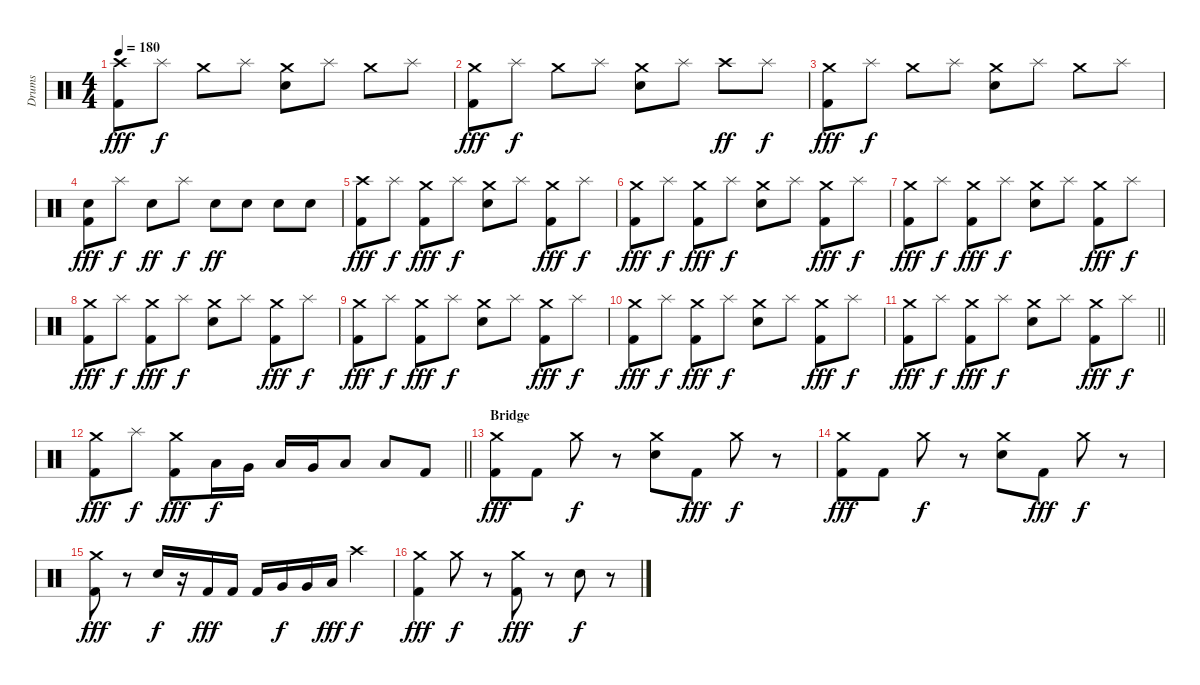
\track ("Drums" "Drums") {instrument percussion}
\staff {score}
\articulation defaults
\ts (4 4)
\tempo 180
\clef neutral
\ks c
("Crash high (hit)" "Kick (hit) 2").8{dy fff} "Splash (hit)".8{dy f} "Crash medium (hit)".8 "Splash (hit)".8 ("Crash medium (hit)" "Electric Snare (hit)").8 "Splash (hit)".8 "Crash medium (hit)".8 "Splash (hit)".8 |
("Crash medium (hit)" "Kick (hit) 2").8{dy fff} "Splash (hit)".8{dy f} "Crash medium (hit)".8 "Splash (hit)".8 ("Crash medium (hit)" "Electric Snare (hit)").8 "Splash (hit)".8 "Crash high (hit)".8{dy ff} "Splash (hit)".8{dy f} |
("Crash medium (hit)" "Kick (hit) 2").8{dy fff} "Splash (hit)".8{dy f} "Crash medium (hit)".8 "Splash (hit)".8 ("Crash medium (hit)" "Electric Snare (hit)").8 "Splash (hit)".8 "Crash medium (hit)".8 "Splash (hit)".8 |
("Electric Snare (hit)" "Kick (hit) 2").8{dy fff} "Splash (hit)".8{dy f} "Electric Snare (hit)".8{dy ff} "Splash (hit)".8{dy f} "Electric Snare (hit)".8{dy ff} "Electric Snare (hit)".8 "Electric Snare (hit)".8 "Electric Snare (hit)".8 |
("Crash high (hit)" "Kick (hit) 2").8{dy fff} "Splash (hit)".8{dy f} ("Crash medium (hit)" "Kick (hit) 2").8{dy fff} "Splash (hit)".8{dy f} ("Crash medium (hit)" "Electric Snare (hit)").8 "Splash (hit)".8 ("Crash medium (hit)" "Kick (hit) 2").8{dy fff} "Splash (hit)".8{dy f} |
("Crash medium (hit)" "Kick (hit) 2").8{dy fff} "Splash (hit)".8{dy f} ("Crash medium (hit)" "Kick (hit) 2").8{dy fff} "Splash (hit)".8{dy f} ("Crash medium (hit)" "Electric Snare (hit)").8 "Splash (hit)".8 ("Crash medium (hit)" "Kick (hit) 2").8{dy fff} "Splash (hit)".8{dy f} |
("Crash medium (hit)" "Kick (hit) 2").8{dy fff} "Splash (hit)".8{dy f} ("Crash medium (hit)" "Kick (hit) 2").8{dy fff} "Splash (hit)".8{dy f} ("Crash medium (hit)" "Electric Snare (hit)").8 "Splash (hit)".8 ("Crash medium (hit)" "Kick (hit) 2").8{dy fff} "Splash (hit)".8{dy f} |
("Crash medium (hit)" "Kick (hit) 2").8{dy fff} "Splash (hit)".8{dy f} ("Crash medium (hit)" "Kick (hit) 2").8{dy fff} "Splash (hit)".8{dy f} ("Crash medium (hit)" "Electric Snare (hit)").8 "Splash (hit)".8 ("Crash medium (hit)" "Kick (hit) 2").8{dy fff} "Splash (hit)".8{dy f} |
("Crash medium (hit)" "Kick (hit) 2").8{dy fff} "Splash (hit)".8{dy f} ("Crash medium (hit)" "Kick (hit) 2").8{dy fff} "Splash (hit)".8{dy f} ("Crash medium (hit)" "Electric Snare (hit)").8 "Splash (hit)".8 ("Crash medium (hit)" "Kick (hit) 2").8{dy fff} "Splash (hit)".8{dy f} |
("Crash medium (hit)" "Kick (hit) 2").8{dy fff} "Splash (hit)".8{dy f} ("Crash medium (hit)" "Kick (hit) 2").8{dy fff} "Splash (hit)".8{dy f} ("Crash medium (hit)" "Electric Snare (hit)").8 "Splash (hit)".8 ("Crash medium (hit)" "Kick (hit) 2").8{dy fff} "Splash (hit)".8{dy f} |
\barLineRight lightlight
("Crash medium (hit)" "Kick (hit) 2").8{dy fff} "Splash (hit)".8{dy f} ("Crash medium (hit)" "Kick (hit) 2").8{dy fff} "Splash (hit)".8{dy f} ("Crash medium (hit)" "Electric Snare (hit)").8 "Splash (hit)".8 ("Crash medium (hit)" "Kick (hit) 2").8{dy fff} "Splash (hit)".8{dy f} |
\barLineRight lightlight
("Crash medium (hit)" "Kick (hit) 2").8{dy fff} "Splash (hit)".8{dy f} ("Crash medium (hit)" "Kick (hit) 2").8{dy fff} "Low Tom (hit)".16{dy f} "Very Low Tom (hit)".16 "Low Floor Tom (hit)".16 "Very Low Tom (hit)".16 "Low Tom (hit)".8 "Low Floor Tom (hit)".8 "Kick (hit) 2".8 |
\section ("" "Bridge")
("Crash medium (hit)" "Kick (hit) 2").8{dy fff} "Kick (hit) 2".8 "Crash medium (hit)".8{dy f} r.8 ("Crash medium (hit)" "Electric Snare (hit)").8 "Kick (hit) 2".8{dy fff} "Crash medium (hit)".8{dy f} r.8 |
("Crash medium (hit)" "Kick (hit) 2").8{dy fff} "Kick (hit) 2".8 "Crash medium (hit)".8{dy f} r.8 ("Crash medium (hit)" "Electric Snare (hit)").8 "Kick (hit) 2".8{dy fff} "Crash medium (hit)".8{dy f} r.8 |
("Crash medium (hit)" "Kick (hit) 2").8{dy fff} r.8 "Electric Snare (hit)".16{dy f} r.16 "Kick (hit) 2".16{dy fff} "Kick (hit) 2".16 "Kick (hit) 2".16 "Very Low Tom (hit)".16{dy f} "Very Low Tom (hit)".16 "Low Floor Tom (hit)".16{dy fff} "Crash high (hit)".4{dy f} |
("Crash medium (hit)" "Kick (hit) 2").4{dy fff} "Crash medium (hit)".8{dy f} r.8 ("Crash medium (hit)" "Kick (hit) 2").8{dy fff} r.8 "Electric Snare (hit)".8{dy f} r.8
